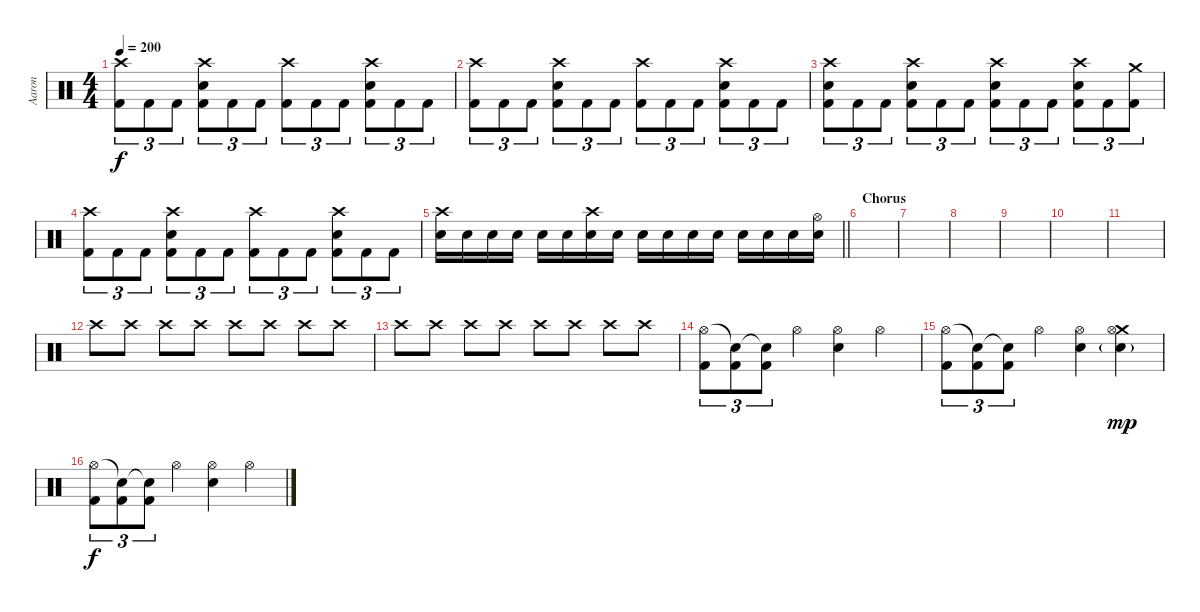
\track ("Aaron" "Aaron") {instrument percussion}
\staff {score}
\articulation defaults
\ts (4 4)
\tempo 200
\clef neutral
\ks c
("Crash high (hit)" "Kick (hit) 2").8{tu (3 2) dy f} "Kick (hit) 2".8{tu (3 2)} "Kick (hit) 2".8{tu (3 2)} ("Crash high (hit)" "Snare (hit) 2" "Kick (hit) 2").8{tu (3 2)} "Kick (hit) 2".8{tu (3 2)} "Kick (hit) 2".8{tu (3 2)} ("Crash high (hit)" "Kick (hit) 2").8{tu (3 2)} "Kick (hit) 2".8{tu (3 2)} "Kick (hit) 2".8{tu (3 2)} ("Crash high (hit)" "Snare (hit) 2" "Kick (hit) 2").8{tu (3 2)} "Kick (hit) 2".8{tu (3 2)} "Kick (hit) 2".8{tu (3 2)} |
("Crash high (hit)" "Kick (hit) 2").8{tu (3 2)} "Kick (hit) 2".8{tu (3 2)} "Kick (hit) 2".8{tu (3 2)} ("Crash high (hit)" "Snare (hit) 2" "Kick (hit) 2").8{tu (3 2)} "Kick (hit) 2".8{tu (3 2)} "Kick (hit) 2".8{tu (3 2)} ("Crash high (hit)" "Kick (hit) 2").8{tu (3 2)} "Kick (hit) 2".8{tu (3 2)} "Kick (hit) 2".8{tu (3 2)} ("Crash high (hit)" "Snare (hit) 2" "Kick (hit) 2").8{tu (3 2)} "Kick (hit) 2".8{tu (3 2)} "Kick (hit) 2".8{tu (3 2)} |
("Crash high (hit)" "Snare (hit) 2" "Kick (hit) 2").8{tu (3 2)} "Kick (hit) 2".8{tu (3 2)} "Kick (hit) 2".8{tu (3 2)} ("Crash high (hit)" "Snare (hit) 2" "Kick (hit) 2").8{tu (3 2)} "Kick (hit) 2".8{tu (3 2)} "Kick (hit) 2".8{tu (3 2)} ("Crash high (hit)" "Snare (hit) 2" "Kick (hit) 2").8{tu (3 2)} "Kick (hit) 2".8{tu (3 2)} "Kick (hit) 2".8{tu (3 2)} ("Crash high (hit)" "Snare (hit) 2" "Kick (hit) 2").8{tu (3 2)} "Kick (hit) 2".8{tu (3 2)} ("Crash medium (hit)" "Kick (hit) 2").8{tu (3 2)} |
("Crash high (hit)" "Kick (hit) 2").8{tu (3 2)} "Kick (hit) 2".8{tu (3 2)} "Kick (hit) 2".8{tu (3 2)} ("Crash high (hit)" "Snare (hit) 2" "Kick (hit) 2").8{tu (3 2)} "Kick (hit) 2".8{tu (3 2)} "Kick (hit) 2".8{tu (3 2)} ("Crash high (hit)" "Kick (hit) 2").8{tu (3 2)} "Kick (hit) 2".8{tu (3 2)} "Kick (hit) 2".8{tu (3 2)} ("Crash high (hit)" "Snare (hit) 2" "Kick (hit) 2").8{tu (3 2)} "Kick (hit) 2".8{tu (3 2)} "Kick (hit) 2".8{tu (3 2)} |
\barLineRight lightlight
("Crash high (hit)" "Snare (hit) 2").16 "Snare (hit) 2".16 "Snare (hit) 2".16 "Snare (hit) 2".16 "Snare (hit) 2".16 "Snare (hit) 2".16 ("Crash high (hit)" "Snare (hit) 2").16 "Snare (hit) 2".16 "Snare (hit) 2".16 "Snare (hit) 2".16 "Snare (hit) 2".16 "Snare (hit) 2".16 "Snare (hit) 2".16 "Snare (hit) 2".16 "Snare (hit) 2".16 ("Hi-Hat (open)" "Snare (hit) 2").16 |
\section ("" "Chorus")
|
|
|
|
|
|
"Crash high (hit)".8{volume 0} "Crash high (hit)".8{volume 1} "Crash high (hit)".8{volume 1} "Crash high (hit)".8{volume 2} "Crash high (hit)".8{volume 2} "Crash high (hit)".8{volume 3} "Crash high (hit)".8{volume 4} "Crash high (hit)".8{volume 4} |
"Crash high (hit)".8{volume 4} "Crash high (hit)".8{volume 6} "Crash high (hit)".8{volume 6} "Crash high (hit)".8{volume 7} "Crash high (hit)".8{volume 9} "Crash high (hit)".8{volume 9} "Crash high (hit)".8{volume 10} "Crash high (hit)".8{volume 11} |
("Hi-Hat (open)" "Kick (hit) 2").8{tu (3 2)} ("Snare (hit)"{t} "Kick (hit) 2").8{tu (3 2)} ("Snare (hit)"{t} "Kick (hit) 2").8{tu (3 2)} "Hi-Hat (open)".4 ("Hi-Hat (open)" "Snare (hit) 2").4 "Hi-Hat (open)".4 |
("Hi-Hat (open)" "Kick (hit) 2").8{tu (3 2)} ("Snare (hit)"{t} "Kick (hit) 2").8{tu (3 2)} ("Snare (hit)"{t} "Kick (hit) 2").8{tu (3 2)} "Hi-Hat (open)".4 ("Hi-Hat (open)" "Snare (hit) 2").4 ("Crash medium (hit)" "Snare (hit) 2"{g} "Hi-Hat (open)").4{dy mp} |
("Hi-Hat (open)" "Kick (hit) 2").8{tu (3 2) dy f} ("Snare (hit)"{t} "Kick (hit) 2").8{tu (3 2)} ("Snare (hit)"{t} "Kick (hit) 2").8{tu (3 2)} "Hi-Hat (open)".4 ("Hi-Hat (open)" "Snare (hit) 2").4 "Hi-Hat (open)".4
